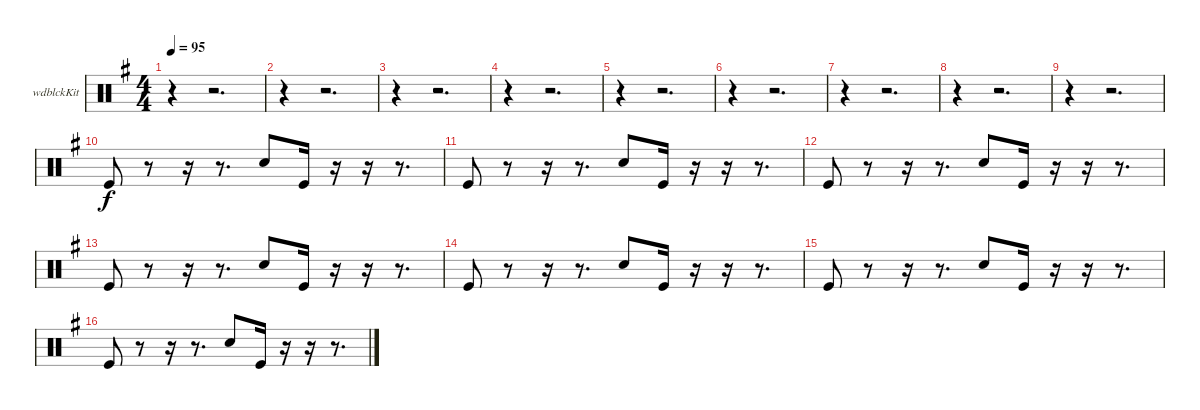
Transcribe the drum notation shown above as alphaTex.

\bracketExtendMode groupsimilarinstruments
\firstSystemTrackNameOrientation horizontal
\otherSystemsTrackNameOrientation horizontal
\track ("Woodblock" "wdblckKit") {instrument percussion}
\staff {score}
\articulation defaults
\ts (4 4)
\tempo 95
\clef neutral
\ks g
r.4{dy f} r.2{d} |
r.4 r.2{d} |
r.4 r.2{d} |
r.4 r.2{d} |
r.4 r.2{d} |
r.4 r.2{d} |
r.4 r.2{d} |
r.4 r.2{d} |
r.4 r.2{d} |
"Kick (hit)".8 r.8 r.16 r.8{d} "Snare (hit) 2".8 "Kick (hit)".16 r.16 r.16 r.8{d} |
"Kick (hit)".8 r.8 r.16 r.8{d} "Snare (hit) 2".8 "Kick (hit)".16 r.16 r.16 r.8{d} |
"Kick (hit)".8 r.8 r.16 r.8{d} "Snare (hit) 2".8 "Kick (hit)".16 r.16 r.16 r.8{d} |
"Kick (hit)".8 r.8 r.16 r.8{d} "Snare (hit) 2".8 "Kick (hit)".16 r.16 r.16 r.8{d} |
"Kick (hit)".8 r.8 r.16 r.8{d} "Snare (hit) 2".8 "Kick (hit)".16 r.16 r.16 r.8{d} |
"Kick (hit)".8 r.8 r.16 r.8{d} "Snare (hit) 2".8 "Kick (hit)".16 r.16 r.16 r.8{d} |
"Kick (hit)".8 r.8 r.16 r.8{d} "Snare (hit) 2".8 "Kick (hit)".16 r.16 r.16 r.8{d}
